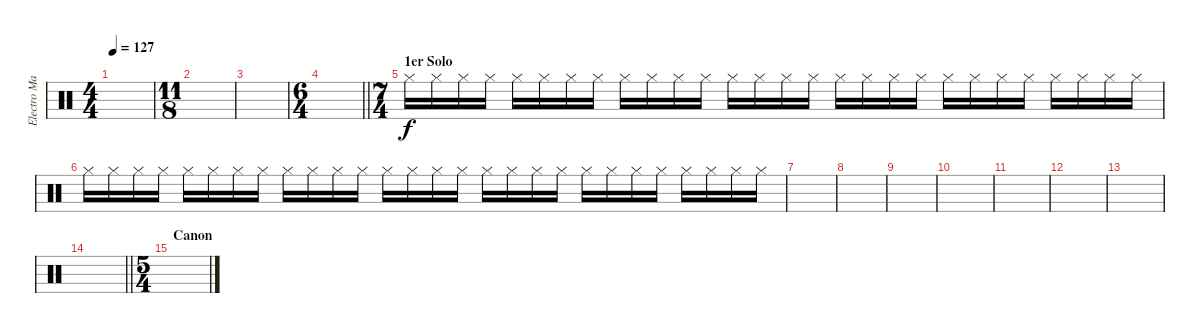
\track ("Electro Mastelotto" "Electro Ma") {instrument percussion}
\staff {score}
\articulation defaults
\ts (4 4)
\tempo 127
\clef neutral
\ks c
|
\ts (11 8)
|
|
\ts (6 4)
\barLineRight lightlight
|
\ts (7 4)
\section ("" "1er Solo")
"Hi-Hat (closed)".16 "Hi-Hat (closed)".16 "Hi-Hat (closed)".16 "Hi-Hat (closed)".16 "Hi-Hat (closed)".16 "Hi-Hat (closed)".16 "Hi-Hat (closed)".16 "Hi-Hat (closed)".16 "Hi-Hat (closed)".16 "Hi-Hat (closed)".16 "Hi-Hat (closed)".16 "Hi-Hat (closed)".16 "Hi-Hat (closed)".16 "Hi-Hat (closed)".16 "Hi-Hat (closed)".16 "Hi-Hat (closed)".16 "Hi-Hat (closed)".16 "Hi-Hat (closed)".16 "Hi-Hat (closed)".16 "Hi-Hat (closed)".16 "Hi-Hat (closed)".16 "Hi-Hat (closed)".16 "Hi-Hat (closed)".16 "Hi-Hat (closed)".16 "Hi-Hat (closed)".16 "Hi-Hat (closed)".16 "Hi-Hat (closed)".16 "Hi-Hat (closed)".16 |
"Hi-Hat (closed)".16 "Hi-Hat (closed)".16 "Hi-Hat (closed)".16 "Hi-Hat (closed)".16 "Hi-Hat (closed)".16 "Hi-Hat (closed)".16 "Hi-Hat (closed)".16 "Hi-Hat (closed)".16 "Hi-Hat (closed)".16 "Hi-Hat (closed)".16 "Hi-Hat (closed)".16 "Hi-Hat (closed)".16 "Hi-Hat (closed)".16 "Hi-Hat (closed)".16 "Hi-Hat (closed)".16 "Hi-Hat (closed)".16 "Hi-Hat (closed)".16 "Hi-Hat (closed)".16 "Hi-Hat (closed)".16 "Hi-Hat (closed)".16 "Hi-Hat (closed)".16 "Hi-Hat (closed)".16 "Hi-Hat (closed)".16 "Hi-Hat (closed)".16 "Hi-Hat (closed)".16 "Hi-Hat (closed)".16 "Hi-Hat (closed)".16 "Hi-Hat (closed)".16 |
|
|
|
|
|
|
|
\barLineRight lightlight
|
\ts (5 4)
\section ("" "Canon")
